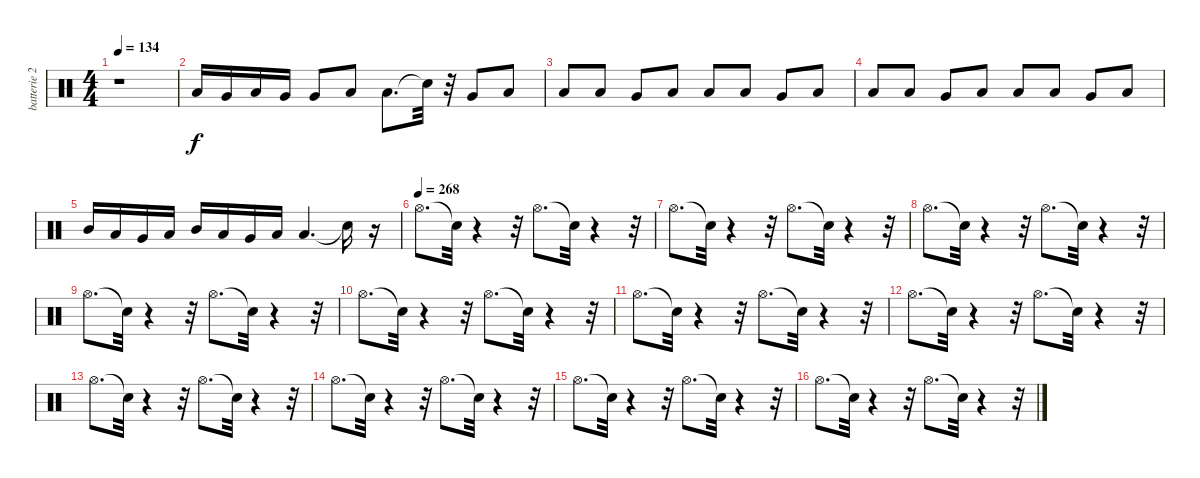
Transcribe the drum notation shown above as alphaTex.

\track ("batterie 2" "batterie 2") {instrument percussion}
\staff {score}
\articulation defaults
\ts (4 4)
\tempo 134
\clef neutral
\ks c
r.1{dy f} |
"Low Tom (hit)".16 "Very Low Tom (hit)".16 "Low Floor Tom (hit)".16 "Very Low Tom (hit)".16 "Very Low Tom (hit)".8 "Low Floor Tom (hit)".8 "Low Floor Tom (hit)".8{d} "Snare (hit)"{t}.32 r.32 "Very Low Tom (hit)".8 "Low Floor Tom (hit)".8 |
"Low Floor Tom (hit)".8 "Low Tom (hit)".8 "Very Low Tom (hit)".8 "Low Floor Tom (hit)".8 "Low Floor Tom (hit)".8 "Low Tom (hit)".8 "Very Low Tom (hit)".8 "Low Floor Tom (hit)".8 |
"Low Floor Tom (hit)".8 "Low Tom (hit)".8 "Very Low Tom (hit)".8 "Low Floor Tom (hit)".8 "Low Floor Tom (hit)".8 "Low Tom (hit)".8 "Very Low Tom (hit)".8 "Low Floor Tom (hit)".8 |
"Mid Tom (hit)".16 "Low Tom (hit)".16 "Very Low Tom (hit)".16 "Low Floor Tom (hit)".16 "Mid Tom (hit)".16 "Low Tom (hit)".16 "Very Low Tom (hit)".16 "Low Floor Tom (hit)".16 "Low Floor Tom (hit)".4{d} "Snare (hit)"{t}.16 r.16 |
\tempo (268)
"Hi-Hat (open)".8{d} "Snare (hit)"{t}.32 r.4 r.32 "Hi-Hat (open)".8{d} "Snare (hit)"{t}.32 r.4 r.32 |
"Hi-Hat (open)".8{d} "Snare (hit)"{t}.32 r.4 r.32 "Hi-Hat (open)".8{d} "Snare (hit)"{t}.32 r.4 r.32 |
"Hi-Hat (open)".8{d} "Snare (hit)"{t}.32 r.4 r.32 "Hi-Hat (open)".8{d} "Snare (hit)"{t}.32 r.4 r.32 |
"Hi-Hat (open)".8{d} "Snare (hit)"{t}.32 r.4 r.32 "Hi-Hat (open)".8{d} "Snare (hit)"{t}.32 r.4 r.32 |
"Hi-Hat (open)".8{d} "Snare (hit)"{t}.32 r.4 r.32 "Hi-Hat (open)".8{d} "Snare (hit)"{t}.32 r.4 r.32 |
"Hi-Hat (open)".8{d} "Snare (hit)"{t}.32 r.4 r.32 "Hi-Hat (open)".8{d} "Snare (hit)"{t}.32 r.4 r.32 |
"Hi-Hat (open)".8{d} "Snare (hit)"{t}.32 r.4 r.32 "Hi-Hat (open)".8{d} "Snare (hit)"{t}.32 r.4 r.32 |
"Hi-Hat (open)".8{d} "Snare (hit)"{t}.32 r.4 r.32 "Hi-Hat (open)".8{d} "Snare (hit)"{t}.32 r.4 r.32 |
"Hi-Hat (open)".8{d} "Snare (hit)"{t}.32 r.4 r.32 "Hi-Hat (open)".8{d} "Snare (hit)"{t}.32 r.4 r.32 |
"Hi-Hat (open)".8{d} "Snare (hit)"{t}.32 r.4 r.32 "Hi-Hat (open)".8{d} "Snare (hit)"{t}.32 r.4 r.32 |
"Hi-Hat (open)".8{d} "Snare (hit)"{t}.32 r.4 r.32 "Hi-Hat (open)".8{d} "Snare (hit)"{t}.32 r.4 r.32
